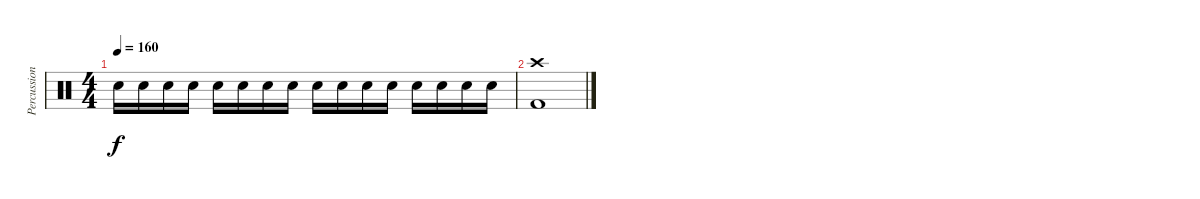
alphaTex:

\track ("Percussion" "Percussion") {instrument percussion}
\staff {score}
\articulation defaults
\ts (4 4)
\tempo 160
\clef neutral
\ks c "Electric Snare (hit)".16{dy f} "Electric Snare (hit)".16 "Electric Snare (hit)".16 "Electric Snare (hit)".16 "Electric Snare (hit)".16 "Electric Snare (hit)".16 "Electric Snare (hit)".16 "Electric Snare (hit)".16 "Electric Snare (hit)".16 "Electric Snare (hit)".16 "Electric Snare (hit)".16 "Electric Snare (hit)".16 "Electric Snare (hit)".16 "Electric Snare (hit)".16 "Electric Snare (hit)".16 "Electric Snare (hit)".16
|
("Crash high (hit)" "Kick (hit) 2").1
